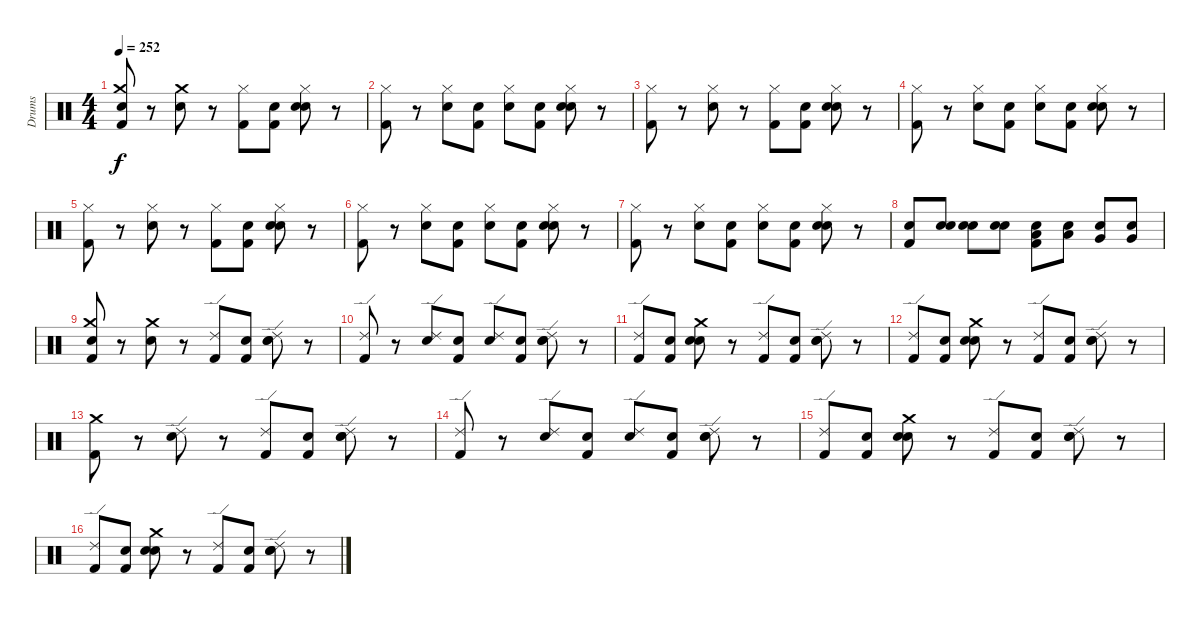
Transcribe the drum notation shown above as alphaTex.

\track ("Drums" "Drums") {instrument percussion}
\staff {score}
\articulation defaults
\ts (4 4)
\tempo 252
\clef neutral
\ks c
("Snare (hit)" "Crash medium (hit)" "Kick (hit) 2").8{dy f} r.8 ("Crash medium (hit)" "Electric Snare (hit)").8 r.8 ("Hi-Hat (closed)" "Kick (hit) 2").8 ("Snare (hit)" "Kick (hit) 2").8 ("Snare (hit)" "Hi-Hat (closed)" "Electric Snare (hit)").8 r.8 |
("Hi-Hat (closed)" "Kick (hit) 2").8 r.8 ("Hi-Hat (closed)" "Electric Snare (hit)").8 ("Snare (hit)" "Kick (hit) 2").8 ("Snare (hit)" "Hi-Hat (closed)").8 ("Snare (hit)" "Kick (hit) 2").8 ("Snare (hit)" "Hi-Hat (closed)" "Electric Snare (hit)").8 r.8 |
("Hi-Hat (closed)" "Kick (hit) 2").8 r.8 ("Hi-Hat (closed)" "Electric Snare (hit)").8 r.8 ("Hi-Hat (closed)" "Kick (hit) 2").8 ("Snare (hit)" "Kick (hit) 2").8 ("Snare (hit)" "Hi-Hat (closed)" "Electric Snare (hit)").8 r.8 |
("Hi-Hat (closed)" "Kick (hit) 2").8 r.8 ("Hi-Hat (closed)" "Electric Snare (hit)").8 ("Snare (hit)" "Kick (hit) 2").8 ("Snare (hit)" "Hi-Hat (closed)").8 ("Snare (hit)" "Kick (hit) 2").8 ("Snare (hit)" "Hi-Hat (closed)" "Electric Snare (hit)").8 r.8 |
("Hi-Hat (closed)" "Kick (hit) 2").8 r.8 ("Hi-Hat (closed)" "Electric Snare (hit)").8 r.8 ("Hi-Hat (closed)" "Kick (hit) 2").8 ("Snare (hit)" "Kick (hit) 2").8 ("Snare (hit)" "Hi-Hat (closed)" "Electric Snare (hit)").8 r.8 |
("Hi-Hat (closed)" "Kick (hit) 2").8 r.8 ("Hi-Hat (closed)" "Electric Snare (hit)").8 ("Snare (hit)" "Kick (hit) 2").8 ("Snare (hit)" "Hi-Hat (closed)").8 ("Snare (hit)" "Kick (hit) 2").8 ("Snare (hit)" "Hi-Hat (closed)" "Electric Snare (hit)").8 r.8 |
("Hi-Hat (closed)" "Kick (hit) 2").8 r.8 ("Hi-Hat (closed)" "Electric Snare (hit)").8 ("Snare (hit)" "Kick (hit) 2").8 ("Snare (hit)" "Hi-Hat (closed)").8 ("Snare (hit)" "Kick (hit) 2").8 ("Snare (hit)" "Hi-Hat (closed)" "Electric Snare (hit)").8 r.8 |
("Electric Snare (hit)" "Kick (hit) 2").8 ("Snare (hit)" "Electric Snare (hit)").8 ("Snare (hit)" "Electric Snare (hit)").8 ("Snare (hit)" "Electric Snare (hit)").8 ("Snare (hit)" "Low Tom (hit)" "Kick (hit) 2").8 ("Snare (hit)" "Low Tom (hit)").8 ("Snare (hit)" "Very Low Tom (hit)").8 ("Snare (hit)" "Very Low Tom (hit)").8 |
("Snare (hit)" "Crash medium (hit)" "Kick (hit) 2").8 r.8 ("Crash medium (hit)" "Electric Snare (hit)").8 r.8 ("Ride (edge) 2" "Kick (hit) 2").8 ("Snare (hit)" "Kick (hit) 2").8 ("Snare (hit)" "Ride (edge) 2" "Electric Snare (hit)").8 r.8 |
("Ride (edge) 2" "Kick (hit) 2").8 r.8 ("Ride (edge) 2" "Electric Snare (hit)").8 ("Snare (hit)" "Kick (hit) 2").8 ("Snare (hit)" "Ride (edge) 2").8 ("Snare (hit)" "Kick (hit) 2").8 ("Snare (hit)" "Ride (edge) 2" "Electric Snare (hit)").8 r.8 |
("Ride (edge) 2" "Kick (hit) 2").8 ("Snare (hit)" "Kick (hit) 2").8 ("Snare (hit)" "Crash medium (hit)" "Electric Snare (hit)").8 r.8 ("Ride (edge) 2" "Kick (hit) 2").8 ("Snare (hit)" "Kick (hit) 2").8 ("Snare (hit)" "Ride (edge) 2" "Electric Snare (hit)").8 r.8 |
("Ride (edge) 2" "Kick (hit) 2").8 ("Snare (hit)" "Kick (hit) 2").8 ("Snare (hit)" "Crash medium (hit)" "Electric Snare (hit)").8 r.8 ("Ride (edge) 2" "Kick (hit) 2").8 ("Snare (hit)" "Kick (hit) 2").8 ("Snare (hit)" "Ride (edge) 2" "Electric Snare (hit)").8 r.8 |
("Crash medium (hit)" "Kick (hit) 2").8 r.8 ("Ride (edge) 2" "Electric Snare (hit)").8 r.8 ("Ride (edge) 2" "Kick (hit) 2").8 ("Snare (hit)" "Kick (hit) 2").8 ("Snare (hit)" "Ride (edge) 2" "Electric Snare (hit)").8 r.8 |
("Ride (edge) 2" "Kick (hit) 2").8 r.8 ("Ride (edge) 2" "Electric Snare (hit)").8 ("Snare (hit)" "Kick (hit) 2").8 ("Snare (hit)" "Ride (edge) 2").8 ("Snare (hit)" "Kick (hit) 2").8 ("Snare (hit)" "Ride (edge) 2" "Electric Snare (hit)").8 r.8 |
("Ride (edge) 2" "Kick (hit) 2").8 ("Snare (hit)" "Kick (hit) 2").8 ("Snare (hit)" "Crash medium (hit)" "Electric Snare (hit)").8 r.8 ("Ride (edge) 2" "Kick (hit) 2").8 ("Snare (hit)" "Kick (hit) 2").8 ("Snare (hit)" "Ride (edge) 2" "Electric Snare (hit)").8 r.8 |
("Ride (edge) 2" "Kick (hit) 2").8 ("Snare (hit)" "Kick (hit) 2").8 ("Snare (hit)" "Crash medium (hit)" "Electric Snare (hit)").8 r.8 ("Ride (edge) 2" "Kick (hit) 2").8 ("Snare (hit)" "Kick (hit) 2").8 ("Snare (hit)" "Ride (edge) 2" "Electric Snare (hit)").8 r.8
